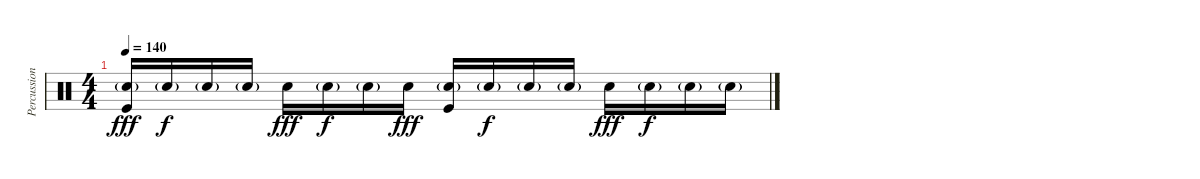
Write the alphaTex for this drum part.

\track ("Percussion" "Percussion") {instrument percussion}
\staff {score}
\articulation defaults
\ts (4 4)
\tempo 140
\clef neutral
\ks c
("Snare (hit) 2"{g} "Kick (hit)").16{dy fff} "Snare (hit) 2"{g}.16{dy f} "Snare (hit) 2"{g}.16 "Snare (hit) 2"{g}.16 "Snare (hit) 2".16{dy fff} "Snare (hit) 2"{g}.16{dy f} "Snare (hit) 2"{g}.16 "Snare (hit) 2".16{dy fff} ("Snare (hit) 2"{g} "Kick (hit)").16 "Snare (hit) 2"{g}.16{dy f} "Snare (hit) 2"{g}.16 "Snare (hit) 2"{g}.16 "Snare (hit) 2".16{dy fff} "Snare (hit) 2"{g}.16{dy f} "Snare (hit) 2"{g}.16 "Snare (hit) 2"{g}.16
